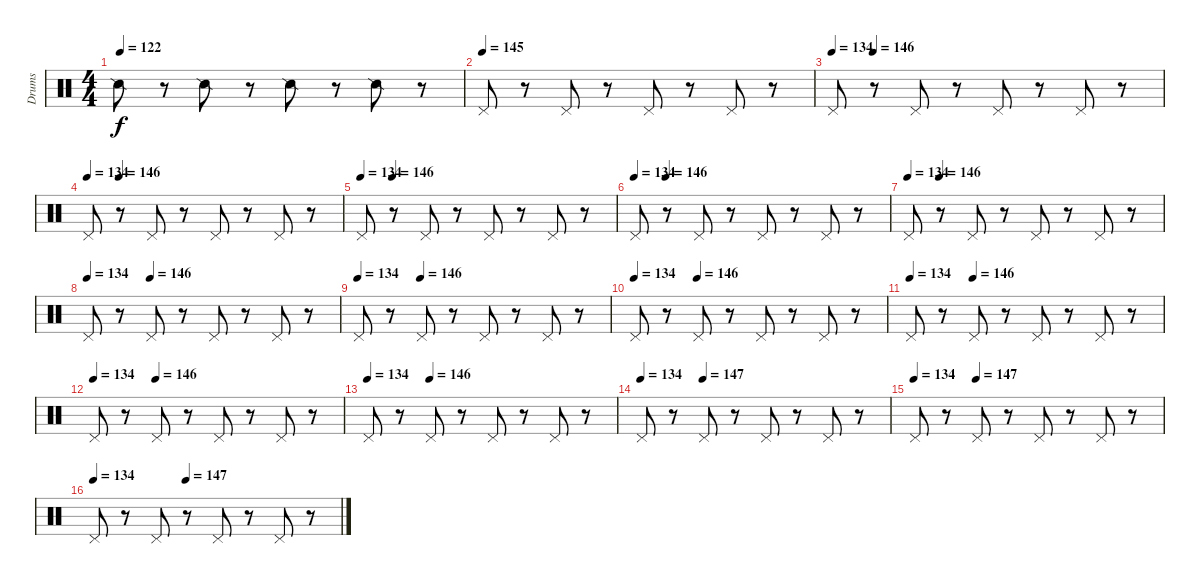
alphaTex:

\track ("Drums" "Drums") {instrument percussion}
\staff {score}
\articulation defaults
\ts (4 4)
\tempo 122
\clef neutral
\ks c "Snare (side stick) 2".8{dy f}
r.8 "Snare (side stick) 2".8 r.8 "Snare (side stick) 2".8 r.8 "Snare (side stick) 2".8 r.8 |
\tempo (145)
"Pedal Hi-Hat (hit)".8 r.8 "Pedal Hi-Hat (hit)".8 r.8 "Pedal Hi-Hat (hit)".8 r.8 "Pedal Hi-Hat (hit)".8 r.8 |
\tempo (146 0.125)
\tempo (134)
"Pedal Hi-Hat (hit)".8 r.8 "Pedal Hi-Hat (hit)".8 r.8 "Pedal Hi-Hat (hit)".8 r.8 "Pedal Hi-Hat (hit)".8 r.8 |
\tempo (146 0.125)
\tempo (134)
"Pedal Hi-Hat (hit)".8 r.8 "Pedal Hi-Hat (hit)".8 r.8 "Pedal Hi-Hat (hit)".8 r.8 "Pedal Hi-Hat (hit)".8 r.8 |
\tempo (146 0.125)
\tempo (134)
"Pedal Hi-Hat (hit)".8 r.8 "Pedal Hi-Hat (hit)".8 r.8 "Pedal Hi-Hat (hit)".8 r.8 "Pedal Hi-Hat (hit)".8 r.8 |
\tempo (146 0.125)
\tempo (134)
"Pedal Hi-Hat (hit)".8 r.8 "Pedal Hi-Hat (hit)".8 r.8 "Pedal Hi-Hat (hit)".8 r.8 "Pedal Hi-Hat (hit)".8 r.8 |
\tempo (146 0.125)
\tempo (134)
"Pedal Hi-Hat (hit)".8 r.8 "Pedal Hi-Hat (hit)".8 r.8 "Pedal Hi-Hat (hit)".8 r.8 "Pedal Hi-Hat (hit)".8 r.8 |
\tempo (146 0.25)
\tempo (134)
"Pedal Hi-Hat (hit)".8 r.8 "Pedal Hi-Hat (hit)".8 r.8 "Pedal Hi-Hat (hit)".8 r.8 "Pedal Hi-Hat (hit)".8 r.8 |
\tempo (146 0.25)
\tempo (134)
"Pedal Hi-Hat (hit)".8 r.8 "Pedal Hi-Hat (hit)".8 r.8 "Pedal Hi-Hat (hit)".8 r.8 "Pedal Hi-Hat (hit)".8 r.8 |
\tempo (146 0.25)
\tempo (134)
"Pedal Hi-Hat (hit)".8 r.8 "Pedal Hi-Hat (hit)".8 r.8 "Pedal Hi-Hat (hit)".8 r.8 "Pedal Hi-Hat (hit)".8 r.8 |
\tempo (146 0.25)
\tempo (134)
"Pedal Hi-Hat (hit)".8 r.8 "Pedal Hi-Hat (hit)".8 r.8 "Pedal Hi-Hat (hit)".8 r.8 "Pedal Hi-Hat (hit)".8 r.8 |
\tempo (146 0.25)
\tempo (134)
"Pedal Hi-Hat (hit)".8 r.8 "Pedal Hi-Hat (hit)".8 r.8 "Pedal Hi-Hat (hit)".8 r.8 "Pedal Hi-Hat (hit)".8 r.8 |
\tempo (146 0.25)
\tempo (134)
"Pedal Hi-Hat (hit)".8 r.8 "Pedal Hi-Hat (hit)".8 r.8 "Pedal Hi-Hat (hit)".8 r.8 "Pedal Hi-Hat (hit)".8 r.8 |
\tempo (147 0.25)
\tempo (134)
"Pedal Hi-Hat (hit)".8 r.8 "Pedal Hi-Hat (hit)".8 r.8 "Pedal Hi-Hat (hit)".8 r.8 "Pedal Hi-Hat (hit)".8 r.8 |
\tempo (147 0.25)
\tempo (134)
"Pedal Hi-Hat (hit)".8 r.8 "Pedal Hi-Hat (hit)".8 r.8 "Pedal Hi-Hat (hit)".8 r.8 "Pedal Hi-Hat (hit)".8 r.8 |
\tempo (147 0.375)
\tempo (134)
"Pedal Hi-Hat (hit)".8 r.8 "Pedal Hi-Hat (hit)".8 r.8 "Pedal Hi-Hat (hit)".8 r.8 "Pedal Hi-Hat (hit)".8 r.8
